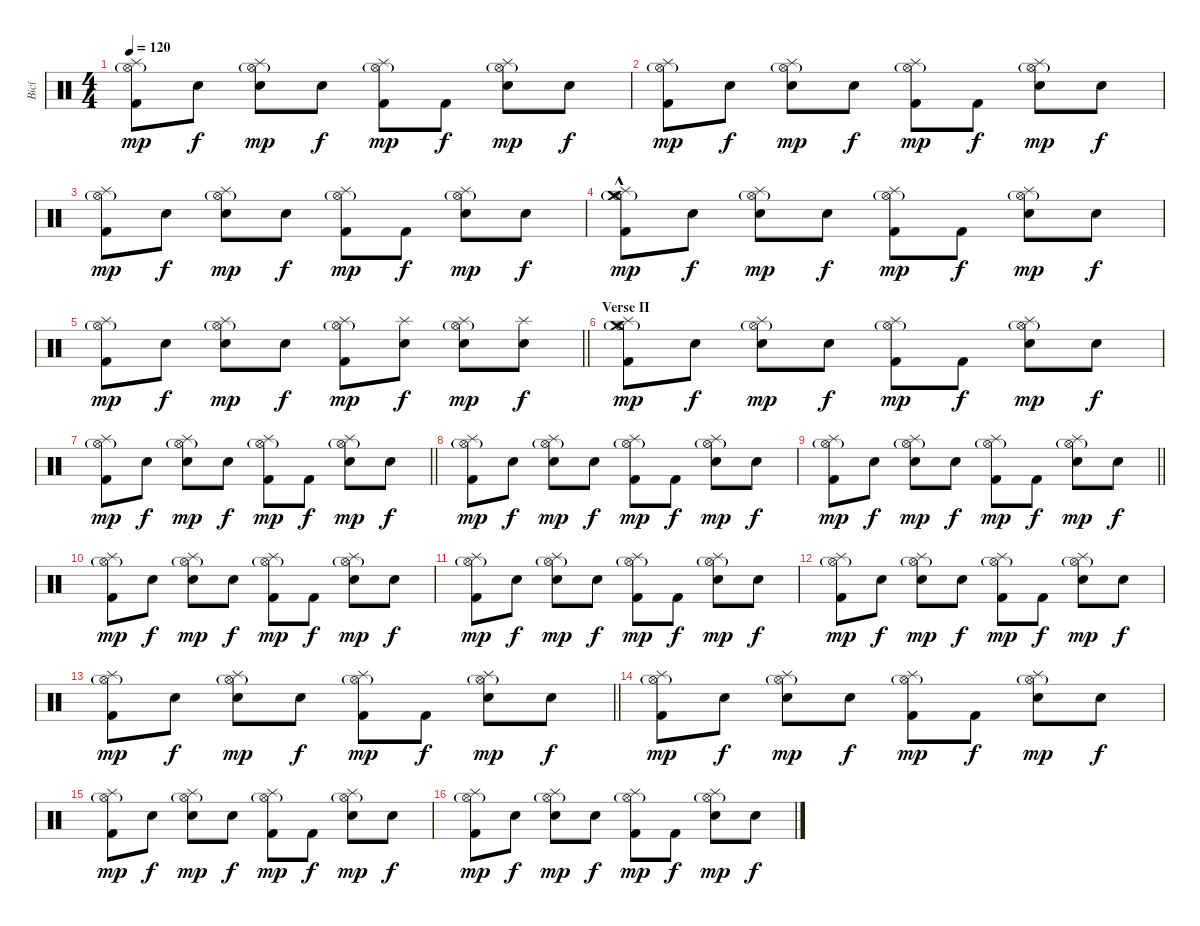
\track ("Bicí" "Bicí") {instrument percussion}
\staff {score}
\articulation defaults
\ts (4 4)
\tempo 120
\clef neutral
\ks c
("Splash (hit)" "Hi-Hat (open)"{g} "Kick (hit) 2").8{dy mp} "Snare (hit)".8{dy f} ("Splash (hit)" "Hi-Hat (open)"{g} "Electric Snare (hit)").8{dy mp} "Snare (hit)".8{dy f} ("Splash (hit)" "Hi-Hat (open)"{g} "Kick (hit) 2").8{dy mp} "Kick (hit) 2".8{dy f} ("Splash (hit)" "Hi-Hat (open)"{g} "Electric Snare (hit)").8{dy mp} "Snare (hit)".8{dy f} |
("Splash (hit)" "Hi-Hat (open)"{g} "Kick (hit) 2").8{dy mp} "Snare (hit)".8{dy f} ("Splash (hit)" "Hi-Hat (open)"{g} "Electric Snare (hit)").8{dy mp} "Snare (hit)".8{dy f} ("Splash (hit)" "Hi-Hat (open)"{g} "Kick (hit) 2").8{dy mp} "Kick (hit) 2".8{dy f} ("Splash (hit)" "Hi-Hat (open)"{g} "Electric Snare (hit)").8{dy mp} "Snare (hit)".8{dy f} |
("Splash (hit)" "Hi-Hat (open)"{g} "Kick (hit) 2").8{dy mp} "Snare (hit)".8{dy f} ("Splash (hit)" "Hi-Hat (open)"{g} "Electric Snare (hit)").8{dy mp} "Snare (hit)".8{dy f} ("Splash (hit)" "Hi-Hat (open)"{g} "Kick (hit) 2").8{dy mp} "Kick (hit) 2".8{dy f} ("Splash (hit)" "Hi-Hat (open)"{g} "Electric Snare (hit)").8{dy mp} "Snare (hit)".8{dy f} |
("Crash medium (hit)"{hac} "Splash (hit)" "Hi-Hat (open)"{g} "Kick (hit) 2").8{dy mp} "Snare (hit)".8{dy f} ("Splash (hit)" "Hi-Hat (open)"{g} "Electric Snare (hit)").8{dy mp} "Snare (hit)".8{dy f} ("Splash (hit)" "Hi-Hat (open)"{g} "Kick (hit) 2").8{dy mp} "Kick (hit) 2".8{dy f} ("Splash (hit)" "Hi-Hat (open)"{g} "Electric Snare (hit)").8{dy mp} "Snare (hit)".8{dy f} |
\barLineRight lightlight
("Splash (hit)" "Hi-Hat (open)"{g} "Kick (hit) 2").8{dy mp} "Snare (hit)".8{dy f} ("Splash (hit)" "Hi-Hat (open)"{g} "Electric Snare (hit)").8{dy mp} "Snare (hit)".8{dy f} ("Splash (hit)" "Hi-Hat (open)"{g} "Kick (hit) 2").8{dy mp} ("Splash (hit)" "Electric Snare (hit)").8{dy f} ("Splash (hit)" "Hi-Hat (open)"{g} "Electric Snare (hit)").8{dy mp} ("Splash (hit)" "Electric Snare (hit)").8{dy f} |
\section ("" "Verse II")
("Crash medium (hit)" "Splash (hit)" "Hi-Hat (open)"{g} "Kick (hit) 2").8{dy mp} "Snare (hit)".8{dy f} ("Splash (hit)" "Hi-Hat (open)"{g} "Electric Snare (hit)").8{dy mp} "Snare (hit)".8{dy f} ("Splash (hit)" "Hi-Hat (open)"{g} "Kick (hit) 2").8{dy mp} "Kick (hit) 2".8{dy f} ("Splash (hit)" "Hi-Hat (open)"{g} "Electric Snare (hit)").8{dy mp} "Snare (hit)".8{dy f} |
\barLineRight lightlight
("Splash (hit)" "Hi-Hat (open)"{g} "Kick (hit) 2").8{dy mp} "Snare (hit)".8{dy f} ("Splash (hit)" "Hi-Hat (open)"{g} "Electric Snare (hit)").8{dy mp} "Snare (hit)".8{dy f} ("Splash (hit)" "Hi-Hat (open)"{g} "Kick (hit) 2").8{dy mp} "Kick (hit) 2".8{dy f} ("Splash (hit)" "Hi-Hat (open)"{g} "Electric Snare (hit)").8{dy mp} "Snare (hit)".8{dy f} |
("Splash (hit)" "Hi-Hat (open)"{g} "Kick (hit) 2").8{dy mp} "Snare (hit)".8{dy f} ("Splash (hit)" "Hi-Hat (open)"{g} "Electric Snare (hit)").8{dy mp} "Snare (hit)".8{dy f} ("Splash (hit)" "Hi-Hat (open)"{g} "Kick (hit) 2").8{dy mp} "Kick (hit) 2".8{dy f} ("Splash (hit)" "Hi-Hat (open)"{g} "Electric Snare (hit)").8{dy mp} "Snare (hit)".8{dy f} |
\barLineRight lightlight
("Splash (hit)" "Hi-Hat (open)"{g} "Kick (hit) 2").8{dy mp} "Snare (hit)".8{dy f} ("Splash (hit)" "Hi-Hat (open)"{g} "Electric Snare (hit)").8{dy mp} "Snare (hit)".8{dy f} ("Splash (hit)" "Hi-Hat (open)"{g} "Kick (hit) 2").8{dy mp} "Kick (hit) 2".8{dy f} ("Splash (hit)" "Hi-Hat (open)"{g} "Electric Snare (hit)").8{dy mp} "Snare (hit)".8{dy f} |
("Splash (hit)" "Hi-Hat (open)"{g} "Kick (hit) 2").8{dy mp} "Snare (hit)".8{dy f} ("Splash (hit)" "Hi-Hat (open)"{g} "Electric Snare (hit)").8{dy mp} "Snare (hit)".8{dy f} ("Splash (hit)" "Hi-Hat (open)"{g} "Kick (hit) 2").8{dy mp} "Kick (hit) 2".8{dy f} ("Splash (hit)" "Hi-Hat (open)"{g} "Electric Snare (hit)").8{dy mp} "Snare (hit)".8{dy f} |
("Splash (hit)" "Hi-Hat (open)"{g} "Kick (hit) 2").8{dy mp} "Snare (hit)".8{dy f} ("Splash (hit)" "Hi-Hat (open)"{g} "Electric Snare (hit)").8{dy mp} "Snare (hit)".8{dy f} ("Splash (hit)" "Hi-Hat (open)"{g} "Kick (hit) 2").8{dy mp} "Kick (hit) 2".8{dy f} ("Splash (hit)" "Hi-Hat (open)"{g} "Electric Snare (hit)").8{dy mp} "Snare (hit)".8{dy f} |
("Splash (hit)" "Hi-Hat (open)"{g} "Kick (hit) 2").8{dy mp} "Snare (hit)".8{dy f} ("Splash (hit)" "Hi-Hat (open)"{g} "Electric Snare (hit)").8{dy mp} "Snare (hit)".8{dy f} ("Splash (hit)" "Hi-Hat (open)"{g} "Kick (hit) 2").8{dy mp} "Kick (hit) 2".8{dy f} ("Splash (hit)" "Hi-Hat (open)"{g} "Electric Snare (hit)").8{dy mp} "Snare (hit)".8{dy f} |
\barLineRight lightlight
("Splash (hit)" "Hi-Hat (open)"{g} "Kick (hit) 2").8{dy mp} "Snare (hit)".8{dy f} ("Splash (hit)" "Hi-Hat (open)"{g} "Electric Snare (hit)").8{dy mp} "Snare (hit)".8{dy f} ("Splash (hit)" "Hi-Hat (open)"{g} "Kick (hit) 2").8{dy mp} "Kick (hit) 2".8{dy f} ("Splash (hit)" "Hi-Hat (open)"{g} "Electric Snare (hit)").8{dy mp} "Snare (hit)".8{dy f} |
("Splash (hit)" "Hi-Hat (open)"{g} "Kick (hit) 2").8{dy mp} "Snare (hit)".8{dy f} ("Splash (hit)" "Hi-Hat (open)"{g} "Electric Snare (hit)").8{dy mp} "Snare (hit)".8{dy f} ("Splash (hit)" "Hi-Hat (open)"{g} "Kick (hit) 2").8{dy mp} "Kick (hit) 2".8{dy f} ("Splash (hit)" "Hi-Hat (open)"{g} "Electric Snare (hit)").8{dy mp} "Snare (hit)".8{dy f} |
("Splash (hit)" "Hi-Hat (open)"{g} "Kick (hit) 2").8{dy mp} "Snare (hit)".8{dy f} ("Splash (hit)" "Hi-Hat (open)"{g} "Electric Snare (hit)").8{dy mp} "Snare (hit)".8{dy f} ("Splash (hit)" "Hi-Hat (open)"{g} "Kick (hit) 2").8{dy mp} "Kick (hit) 2".8{dy f} ("Splash (hit)" "Hi-Hat (open)"{g} "Electric Snare (hit)").8{dy mp} "Snare (hit)".8{dy f} |
("Splash (hit)" "Hi-Hat (open)"{g} "Kick (hit) 2").8{dy mp} "Snare (hit)".8{dy f} ("Splash (hit)" "Hi-Hat (open)"{g} "Electric Snare (hit)").8{dy mp} "Snare (hit)".8{dy f} ("Splash (hit)" "Hi-Hat (open)"{g} "Kick (hit) 2").8{dy mp} "Kick (hit) 2".8{dy f} ("Splash (hit)" "Hi-Hat (open)"{g} "Electric Snare (hit)").8{dy mp} "Snare (hit)".8{dy f}
